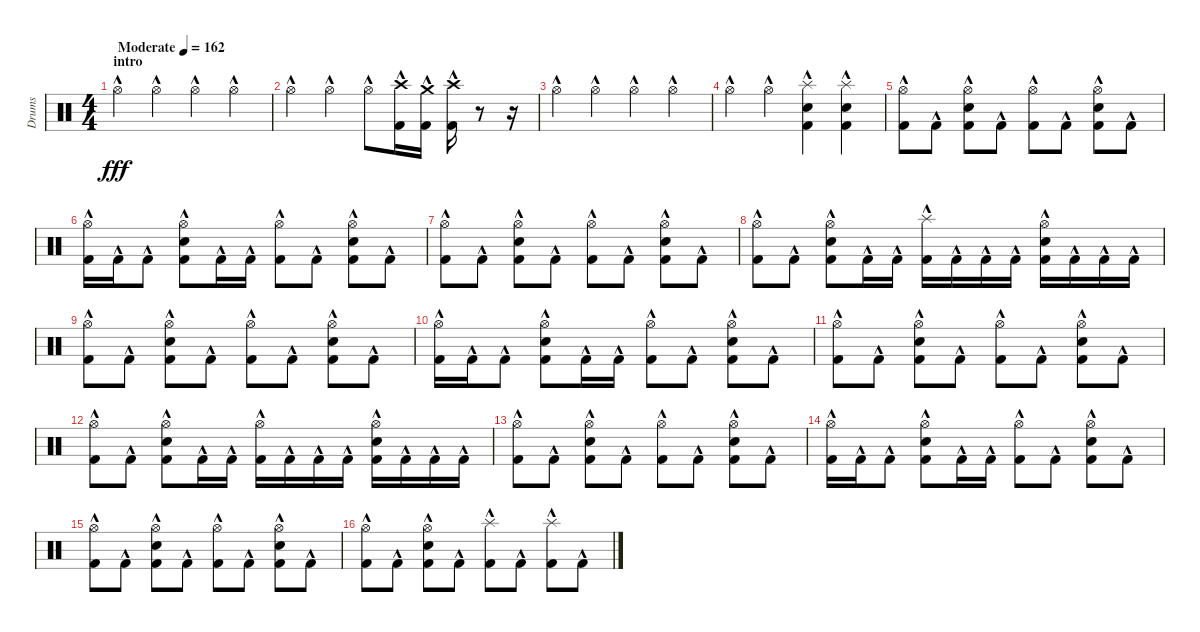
\track ("Drums" "Drums") {instrument percussion}
\staff {score}
\articulation defaults
\ts (4 4)
\section ("" "intro")
\tempo (162 "Moderate")
\clef neutral
\ks c "Hi-Hat (open)"{hac}.4{dy fff} "Hi-Hat (open)"{hac}.4 "Hi-Hat (open)"{hac}.4 "Hi-Hat (open)"{hac}.4
|
"Hi-Hat (open)"{hac}.4 "Hi-Hat (open)"{hac}.4 "Hi-Hat (open)"{hac}.8 ("Kick (hit) 2"{hac} "Crash high (hit)"{hac}).16 ("Kick (hit) 2"{hac} "Crash medium (hit)"{hac}).16 ("Kick (hit) 2"{hac} "Crash high (hit)"{hac}).16 r.8 r.16 |
"Hi-Hat (open)"{hac}.4 "Hi-Hat (open)"{hac}.4 "Hi-Hat (open)"{hac}.4 "Hi-Hat (open)"{hac}.4 |
"Hi-Hat (open)"{hac}.4 "Hi-Hat (open)"{hac}.4 ("Kick (hit) 2"{hac} "Electric Snare (hit)"{hac} "Splash (hit)"{hac}).4 ("Kick (hit) 2"{hac} "Electric Snare (hit)"{hac} "Splash (hit)"{hac}).4 |
("Hi-Hat (open)"{hac} "Kick (hit) 2"{hac}).8 "Kick (hit) 2"{hac}.8 ("Hi-Hat (open)"{hac} "Kick (hit) 2"{hac} "Electric Snare (hit)"{hac}).8 "Kick (hit) 2"{hac}.8 ("Hi-Hat (open)"{hac} "Kick (hit) 2"{hac}).8 "Kick (hit) 2"{hac}.8 ("Hi-Hat (open)"{hac} "Kick (hit) 2"{hac} "Electric Snare (hit)"{hac}).8 "Kick (hit) 2"{hac}.8 |
("Hi-Hat (open)"{hac} "Kick (hit) 2"{hac}).16 "Kick (hit) 2"{hac}.16 "Kick (hit) 2"{hac}.8 ("Hi-Hat (open)"{hac} "Kick (hit) 2"{hac} "Electric Snare (hit)"{hac}).8 "Kick (hit) 2"{hac}.16 "Kick (hit) 2"{hac}.16 ("Hi-Hat (open)"{hac} "Kick (hit) 2"{hac}).8 "Kick (hit) 2"{hac}.8 ("Hi-Hat (open)"{hac} "Kick (hit) 2"{hac} "Electric Snare (hit)"{hac}).8 "Kick (hit) 2"{hac}.8 |
("Hi-Hat (open)"{hac} "Kick (hit) 2"{hac}).8 "Kick (hit) 2"{hac}.8 ("Hi-Hat (open)"{hac} "Kick (hit) 2"{hac} "Electric Snare (hit)"{hac}).8 "Kick (hit) 2"{hac}.8 ("Hi-Hat (open)"{hac} "Kick (hit) 2"{hac}).8 "Kick (hit) 2"{hac}.8 ("Hi-Hat (open)"{hac} "Kick (hit) 2"{hac} "Electric Snare (hit)"{hac}).8 "Kick (hit) 2"{hac}.8 |
("Hi-Hat (open)"{hac} "Kick (hit) 2"{hac}).8 "Kick (hit) 2"{hac}.8 ("Hi-Hat (open)"{hac} "Kick (hit) 2"{hac} "Electric Snare (hit)"{hac}).8 "Kick (hit) 2"{hac}.16 "Kick (hit) 2"{hac}.16 ("Kick (hit) 2"{hac} "Splash (hit)"{hac}).16 "Kick (hit) 2"{hac}.16 "Kick (hit) 2"{hac}.16 "Kick (hit) 2"{hac}.16 ("Hi-Hat (open)"{hac} "Kick (hit) 2"{hac} "Electric Snare (hit)"{hac}).16 "Kick (hit) 2"{hac}.16 "Kick (hit) 2"{hac}.16 "Kick (hit) 2"{hac}.16 |
("Hi-Hat (open)"{hac} "Kick (hit) 2"{hac}).8 "Kick (hit) 2"{hac}.8 ("Hi-Hat (open)"{hac} "Kick (hit) 2"{hac} "Electric Snare (hit)"{hac}).8 "Kick (hit) 2"{hac}.8 ("Hi-Hat (open)"{hac} "Kick (hit) 2"{hac}).8 "Kick (hit) 2"{hac}.8 ("Hi-Hat (open)"{hac} "Kick (hit) 2"{hac} "Electric Snare (hit)"{hac}).8 "Kick (hit) 2"{hac}.8 |
("Hi-Hat (open)"{hac} "Kick (hit) 2"{hac}).16 "Kick (hit) 2"{hac}.16 "Kick (hit) 2"{hac}.8 ("Hi-Hat (open)"{hac} "Kick (hit) 2"{hac} "Electric Snare (hit)"{hac}).8 "Kick (hit) 2"{hac}.16 "Kick (hit) 2"{hac}.16 ("Hi-Hat (open)"{hac} "Kick (hit) 2"{hac}).8 "Kick (hit) 2"{hac}.8 ("Hi-Hat (open)"{hac} "Kick (hit) 2"{hac} "Electric Snare (hit)"{hac}).8 "Kick (hit) 2"{hac}.8 |
("Hi-Hat (open)"{hac} "Kick (hit) 2"{hac}).8 "Kick (hit) 2"{hac}.8 ("Hi-Hat (open)"{hac} "Kick (hit) 2"{hac} "Electric Snare (hit)"{hac}).8 "Kick (hit) 2"{hac}.8 ("Hi-Hat (open)"{hac} "Kick (hit) 2"{hac}).8 "Kick (hit) 2"{hac}.8 ("Hi-Hat (open)"{hac} "Kick (hit) 2"{hac} "Electric Snare (hit)"{hac}).8 "Kick (hit) 2"{hac}.8 |
("Hi-Hat (open)"{hac} "Kick (hit) 2"{hac}).8 "Kick (hit) 2"{hac}.8 ("Hi-Hat (open)"{hac} "Kick (hit) 2"{hac} "Electric Snare (hit)"{hac}).8 "Kick (hit) 2"{hac}.16 "Kick (hit) 2"{hac}.16 ("Hi-Hat (open)"{hac} "Kick (hit) 2"{hac}).16 "Kick (hit) 2"{hac}.16 "Kick (hit) 2"{hac}.16 "Kick (hit) 2"{hac}.16 ("Hi-Hat (open)"{hac} "Kick (hit) 2"{hac} "Electric Snare (hit)"{hac}).16 "Kick (hit) 2"{hac}.16 "Kick (hit) 2"{hac}.16 "Kick (hit) 2"{hac}.16 |
("Hi-Hat (open)"{hac} "Kick (hit) 2"{hac}).8 "Kick (hit) 2"{hac}.8 ("Hi-Hat (open)"{hac} "Kick (hit) 2"{hac} "Electric Snare (hit)"{hac}).8 "Kick (hit) 2"{hac}.8 ("Hi-Hat (open)"{hac} "Kick (hit) 2"{hac}).8 "Kick (hit) 2"{hac}.8 ("Hi-Hat (open)"{hac} "Kick (hit) 2"{hac} "Electric Snare (hit)"{hac}).8 "Kick (hit) 2"{hac}.8 |
("Hi-Hat (open)"{hac} "Kick (hit) 2"{hac}).16 "Kick (hit) 2"{hac}.16 "Kick (hit) 2"{hac}.8 ("Hi-Hat (open)"{hac} "Kick (hit) 2"{hac} "Electric Snare (hit)"{hac}).8 "Kick (hit) 2"{hac}.16 "Kick (hit) 2"{hac}.16 ("Hi-Hat (open)"{hac} "Kick (hit) 2"{hac}).8 "Kick (hit) 2"{hac}.8 ("Hi-Hat (open)"{hac} "Kick (hit) 2"{hac} "Electric Snare (hit)"{hac}).8 "Kick (hit) 2"{hac}.8 |
("Hi-Hat (open)"{hac} "Kick (hit) 2"{hac}).8 "Kick (hit) 2"{hac}.8 ("Hi-Hat (open)"{hac} "Kick (hit) 2"{hac} "Electric Snare (hit)"{hac}).8 "Kick (hit) 2"{hac}.8 ("Hi-Hat (open)"{hac} "Kick (hit) 2"{hac}).8 "Kick (hit) 2"{hac}.8 ("Hi-Hat (open)"{hac} "Kick (hit) 2"{hac} "Electric Snare (hit)"{hac}).8 "Kick (hit) 2"{hac}.8 |
("Hi-Hat (open)"{hac} "Kick (hit) 2"{hac}).8 "Kick (hit) 2"{hac}.8 ("Hi-Hat (open)"{hac} "Kick (hit) 2"{hac} "Electric Snare (hit)"{hac}).8 "Kick (hit) 2"{hac}.8 ("Kick (hit) 2"{hac} "Splash (hit)"{hac}).8 "Kick (hit) 2"{hac}.8 ("Kick (hit) 2"{hac} "Splash (hit)"{hac}).8 "Kick (hit) 2"{hac}.8
